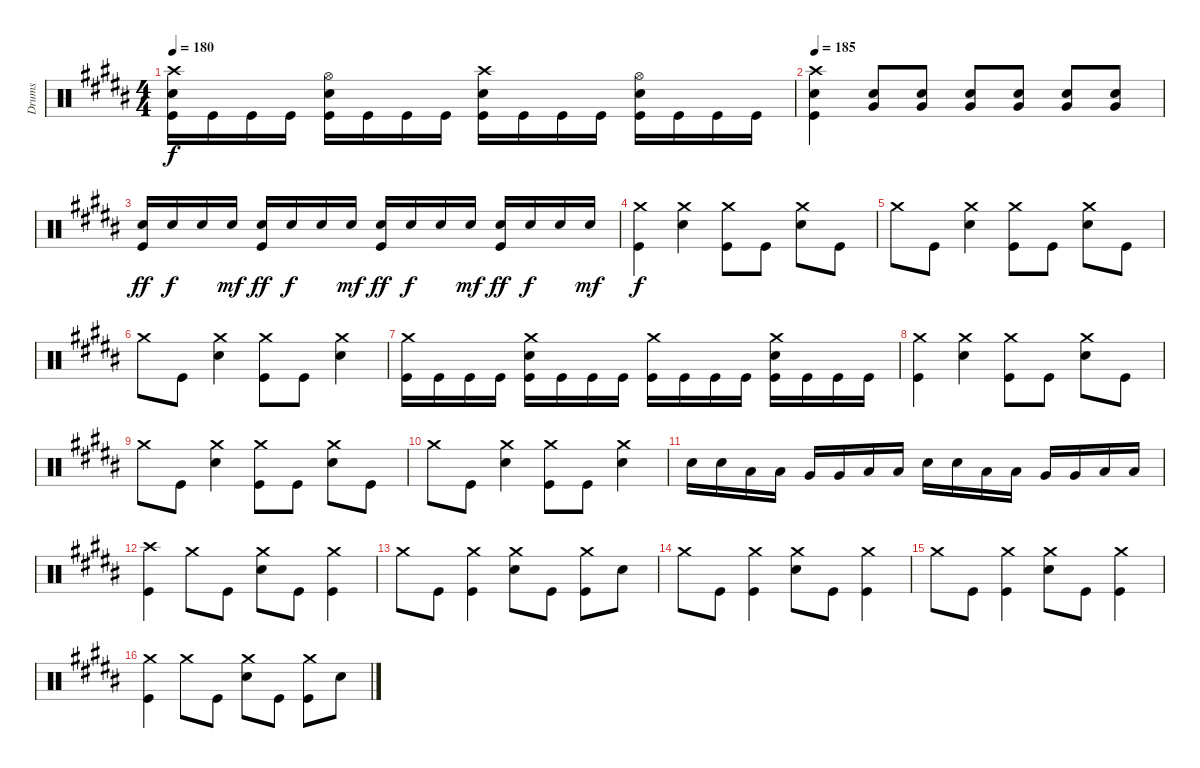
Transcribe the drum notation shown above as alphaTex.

\track ("Drums" "Drums") {instrument percussion}
\staff {score}
\articulation defaults
\ts (4 4)
\tempo 180
\clef neutral
\ks g#minor
("Crash high (hit)" "Kick (hit)" "Snare (hit) 2").16{dy f} "Kick (hit)".16 "Kick (hit)".16 "Kick (hit)".16 ("Kick (hit)" "Hi-Hat (open)" "Snare (hit) 2").16 "Kick (hit)".16 "Kick (hit)".16 "Kick (hit)".16 ("Kick (hit)" "Crash high (hit)" "Snare (hit) 2").16 "Kick (hit)".16 "Kick (hit)".16 "Kick (hit)".16 ("Kick (hit)" "Hi-Hat (open)" "Snare (hit) 2").16 "Kick (hit)".16 "Kick (hit)".16 "Kick (hit)".16 |
\tempo 185
\ks b
("Kick (hit)" "Crash high (hit)" "Snare (hit) 2").4 ("Snare (hit) 2" "Very Low Tom (hit)").8 ("Snare (hit) 2" "Very Low Tom (hit)").8 ("Snare (hit) 2" "Very Low Tom (hit)").8 ("Snare (hit) 2" "Very Low Tom (hit)").8 ("Snare (hit) 2" "Very Low Tom (hit)").8 ("Snare (hit) 2" "Very Low Tom (hit)").8 |
\ks g#minor
("Kick (hit)" "Snare (hit) 2").16{dy ff} "Snare (hit) 2".16{dy f} "Snare (hit) 2".16 "Snare (hit) 2".16{dy mf} ("Kick (hit)" "Snare (hit) 2").16{dy ff} "Snare (hit) 2".16{dy f} "Snare (hit) 2".16 "Snare (hit) 2".16{dy mf} ("Kick (hit)" "Snare (hit) 2").16{dy ff} "Snare (hit) 2".16{dy f} "Snare (hit) 2".16 "Snare (hit) 2".16{dy mf} ("Kick (hit)" "Snare (hit) 2").16{dy ff} "Snare (hit) 2".16{dy f} "Snare (hit) 2".16 "Snare (hit) 2".16{dy mf} |
\ks b
("Crash medium (hit)" "Kick (hit)").4{dy f} ("Crash medium (hit)" "Snare (hit) 2").4 ("Crash medium (hit)" "Kick (hit)").8 "Kick (hit)".8 ("Crash medium (hit)" "Snare (hit) 2").8 "Kick (hit)".8 |
\ks g#minor "Crash medium (hit)".8 "Kick (hit)".8
("Crash medium (hit)" "Snare (hit) 2").4 ("Crash medium (hit)" "Kick (hit)").8 "Kick (hit)".8 ("Crash medium (hit)" "Snare (hit) 2").8 "Kick (hit)".8 |
"Crash medium (hit)".8 "Kick (hit)".8 ("Crash medium (hit)" "Snare (hit) 2").4 ("Crash medium (hit)" "Kick (hit)").8 "Kick (hit)".8 ("Crash medium (hit)" "Snare (hit) 2").4 |
("Kick (hit)" "Crash medium (hit)").16 "Kick (hit)".16 "Kick (hit)".16 "Kick (hit)".16 ("Kick (hit)" "Crash medium (hit)" "Snare (hit) 2").16 "Kick (hit)".16 "Kick (hit)".16 "Kick (hit)".16 ("Kick (hit)" "Crash medium (hit)").16 "Kick (hit)".16 "Kick (hit)".16 "Kick (hit)".16 ("Kick (hit)" "Crash medium (hit)" "Snare (hit) 2").16 "Kick (hit)".16 "Kick (hit)".16 "Kick (hit)".16 |
\ks b
("Crash medium (hit)" "Kick (hit)").4 ("Crash medium (hit)" "Snare (hit) 2").4 ("Crash medium (hit)" "Kick (hit)").8 "Kick (hit)".8 ("Crash medium (hit)" "Snare (hit) 2").8 "Kick (hit)".8 |
\ks g#minor "Crash medium (hit)".8 "Kick (hit)".8
("Crash medium (hit)" "Snare (hit) 2").4 ("Crash medium (hit)" "Kick (hit)").8 "Kick (hit)".8 ("Crash medium (hit)" "Snare (hit) 2").8 "Kick (hit)".8 |
"Crash medium (hit)".8 "Kick (hit)".8 ("Crash medium (hit)" "Snare (hit) 2").4 ("Crash medium (hit)" "Kick (hit)").8 "Kick (hit)".8 ("Crash medium (hit)" "Snare (hit) 2").4 |
"Snare (hit) 2".16 "Snare (hit) 2".16 "Low Tom (hit)".16 "Low Tom (hit)".16 "Very Low Tom (hit)".16 "Very Low Tom (hit)".16 "Low Floor Tom (hit)".16 "Low Floor Tom (hit)".16 "Snare (hit) 2".16 "Snare (hit) 2".16 "Low Tom (hit)".16 "Low Tom (hit)".16 "Very Low Tom (hit)".16 "Very Low Tom (hit)".16 "Low Floor Tom (hit)".16 "Low Floor Tom (hit)".16 |
\ks b
("Kick (hit)" "Crash high (hit)").4 "Crash medium (hit)".8 "Kick (hit)".8 ("Snare (hit) 2" "Crash medium (hit)").8 "Kick (hit)".8 ("Kick (hit)" "Crash medium (hit)").4 |
\ks g#minor "Crash medium (hit)".8 "Kick (hit)".8
("Crash medium (hit)" "Kick (hit)").4 ("Snare (hit) 2" "Crash medium (hit)").8 "Kick (hit)".8 ("Kick (hit)" "Crash medium (hit)").8 "Snare (hit) 2".8 |
"Crash medium (hit)".8 "Kick (hit)".8 ("Crash medium (hit)" "Kick (hit)").4 ("Snare (hit) 2" "Crash medium (hit)").8 "Kick (hit)".8 ("Kick (hit)" "Crash medium (hit)").4 |
"Crash medium (hit)".8 "Kick (hit)".8 ("Crash medium (hit)" "Kick (hit)").4 ("Snare (hit) 2" "Crash medium (hit)").8 "Kick (hit)".8 ("Kick (hit)" "Crash medium (hit)").4 |
\ks b
("Kick (hit)" "Crash medium (hit)").4 "Crash medium (hit)".8 "Kick (hit)".8 ("Snare (hit) 2" "Crash medium (hit)").8 "Kick (hit)".8 ("Kick (hit)" "Crash medium (hit)").8 "Snare (hit) 2".8
